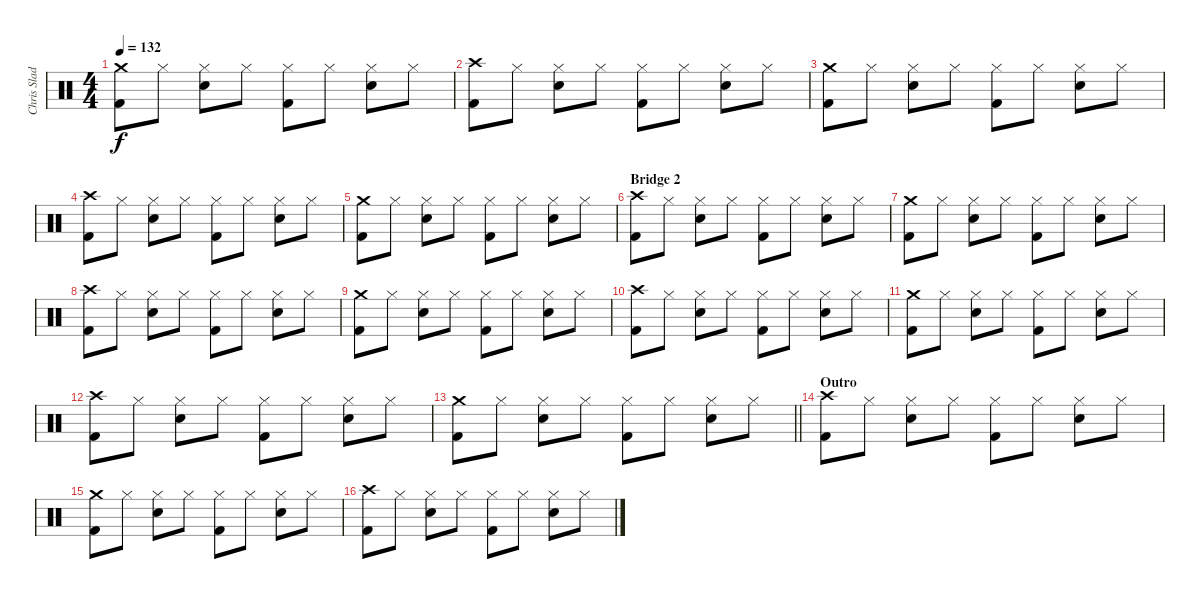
\track ("Chris Slade" "Chris Slad") {instrument percussion}
\staff {score}
\articulation defaults
\ts (4 4)
\tempo 132
\clef neutral
\ks c
("Kick (hit) 2" "Crash medium (hit)").8{dy f} "Hi-Hat (closed)".8 ("Snare (hit) 2" "Hi-Hat (closed)").8 "Hi-Hat (closed)".8 ("Kick (hit) 2" "Hi-Hat (closed)").8 "Hi-Hat (closed)".8 ("Snare (hit) 2" "Hi-Hat (closed)").8 "Hi-Hat (closed)".8 |
("Kick (hit) 2" "Crash high (hit)").8 "Hi-Hat (closed)".8 ("Snare (hit) 2" "Hi-Hat (closed)").8 "Hi-Hat (closed)".8 ("Kick (hit) 2" "Hi-Hat (closed)").8 "Hi-Hat (closed)".8 ("Snare (hit) 2" "Hi-Hat (closed)").8 "Hi-Hat (closed)".8 |
("Kick (hit) 2" "Crash medium (hit)").8 "Hi-Hat (closed)".8 ("Snare (hit) 2" "Hi-Hat (closed)").8 "Hi-Hat (closed)".8 ("Kick (hit) 2" "Hi-Hat (closed)").8 "Hi-Hat (closed)".8 ("Snare (hit) 2" "Hi-Hat (closed)").8 "Hi-Hat (closed)".8 |
("Kick (hit) 2" "Crash high (hit)").8 "Hi-Hat (closed)".8 ("Snare (hit) 2" "Hi-Hat (closed)").8 "Hi-Hat (closed)".8 ("Kick (hit) 2" "Hi-Hat (closed)").8 "Hi-Hat (closed)".8 ("Snare (hit) 2" "Hi-Hat (closed)").8 "Hi-Hat (closed)".8 |
("Kick (hit) 2" "Crash medium (hit)").8 "Hi-Hat (closed)".8 ("Snare (hit) 2" "Hi-Hat (closed)").8 "Hi-Hat (closed)".8 ("Kick (hit) 2" "Hi-Hat (closed)").8 "Hi-Hat (closed)".8 ("Snare (hit) 2" "Hi-Hat (closed)").8 "Hi-Hat (closed)".8 |
\section ("" "Bridge 2")
("Kick (hit) 2" "Crash high (hit)").8 "Hi-Hat (closed)".8 ("Snare (hit) 2" "Hi-Hat (closed)").8 "Hi-Hat (closed)".8 ("Kick (hit) 2" "Hi-Hat (closed)").8 "Hi-Hat (closed)".8 ("Snare (hit) 2" "Hi-Hat (closed)").8 "Hi-Hat (closed)".8 |
("Kick (hit) 2" "Crash medium (hit)").8 "Hi-Hat (closed)".8 ("Snare (hit) 2" "Hi-Hat (closed)").8 "Hi-Hat (closed)".8 ("Kick (hit) 2" "Hi-Hat (closed)").8 "Hi-Hat (closed)".8 ("Snare (hit) 2" "Hi-Hat (closed)").8 "Hi-Hat (closed)".8 |
("Kick (hit) 2" "Crash high (hit)").8 "Hi-Hat (closed)".8 ("Snare (hit) 2" "Hi-Hat (closed)").8 "Hi-Hat (closed)".8 ("Kick (hit) 2" "Hi-Hat (closed)").8 "Hi-Hat (closed)".8 ("Snare (hit) 2" "Hi-Hat (closed)").8 "Hi-Hat (closed)".8 |
("Kick (hit) 2" "Crash medium (hit)").8 "Hi-Hat (closed)".8 ("Snare (hit) 2" "Hi-Hat (closed)").8 "Hi-Hat (closed)".8 ("Kick (hit) 2" "Hi-Hat (closed)").8 "Hi-Hat (closed)".8 ("Snare (hit) 2" "Hi-Hat (closed)").8 "Hi-Hat (closed)".8 |
("Kick (hit) 2" "Crash high (hit)").8 "Hi-Hat (closed)".8 ("Snare (hit) 2" "Hi-Hat (closed)").8 "Hi-Hat (closed)".8 ("Kick (hit) 2" "Hi-Hat (closed)").8 "Hi-Hat (closed)".8 ("Snare (hit) 2" "Hi-Hat (closed)").8 "Hi-Hat (closed)".8 |
("Kick (hit) 2" "Crash medium (hit)").8 "Hi-Hat (closed)".8 ("Snare (hit) 2" "Hi-Hat (closed)").8 "Hi-Hat (closed)".8 ("Kick (hit) 2" "Hi-Hat (closed)").8 "Hi-Hat (closed)".8 ("Snare (hit) 2" "Hi-Hat (closed)").8 "Hi-Hat (closed)".8 |
("Kick (hit) 2" "Crash high (hit)").8 "Hi-Hat (closed)".8 ("Snare (hit) 2" "Hi-Hat (closed)").8 "Hi-Hat (closed)".8 ("Kick (hit) 2" "Hi-Hat (closed)").8 "Hi-Hat (closed)".8 ("Snare (hit) 2" "Hi-Hat (closed)").8 "Hi-Hat (closed)".8 |
\barLineRight lightlight
("Kick (hit) 2" "Crash medium (hit)").8 "Hi-Hat (closed)".8 ("Snare (hit) 2" "Hi-Hat (closed)").8 "Hi-Hat (closed)".8 ("Kick (hit) 2" "Hi-Hat (closed)").8 "Hi-Hat (closed)".8 ("Snare (hit) 2" "Hi-Hat (closed)").8 "Hi-Hat (closed)".8 |
\section ("" "Outro")
("Kick (hit) 2" "Crash high (hit)").8 "Hi-Hat (closed)".8 ("Snare (hit) 2" "Hi-Hat (closed)").8 "Hi-Hat (closed)".8 ("Kick (hit) 2" "Hi-Hat (closed)").8 "Hi-Hat (closed)".8 ("Snare (hit) 2" "Hi-Hat (closed)").8 "Hi-Hat (closed)".8 |
("Kick (hit) 2" "Crash medium (hit)").8 "Hi-Hat (closed)".8 ("Snare (hit) 2" "Hi-Hat (closed)").8 "Hi-Hat (closed)".8 ("Kick (hit) 2" "Hi-Hat (closed)").8 "Hi-Hat (closed)".8 ("Snare (hit) 2" "Hi-Hat (closed)").8 "Hi-Hat (closed)".8 |
("Kick (hit) 2" "Crash high (hit)").8 "Hi-Hat (closed)".8 ("Snare (hit) 2" "Hi-Hat (closed)").8 "Hi-Hat (closed)".8 ("Kick (hit) 2" "Hi-Hat (closed)").8 "Hi-Hat (closed)".8 ("Snare (hit) 2" "Hi-Hat (closed)").8 "Hi-Hat (closed)".8
